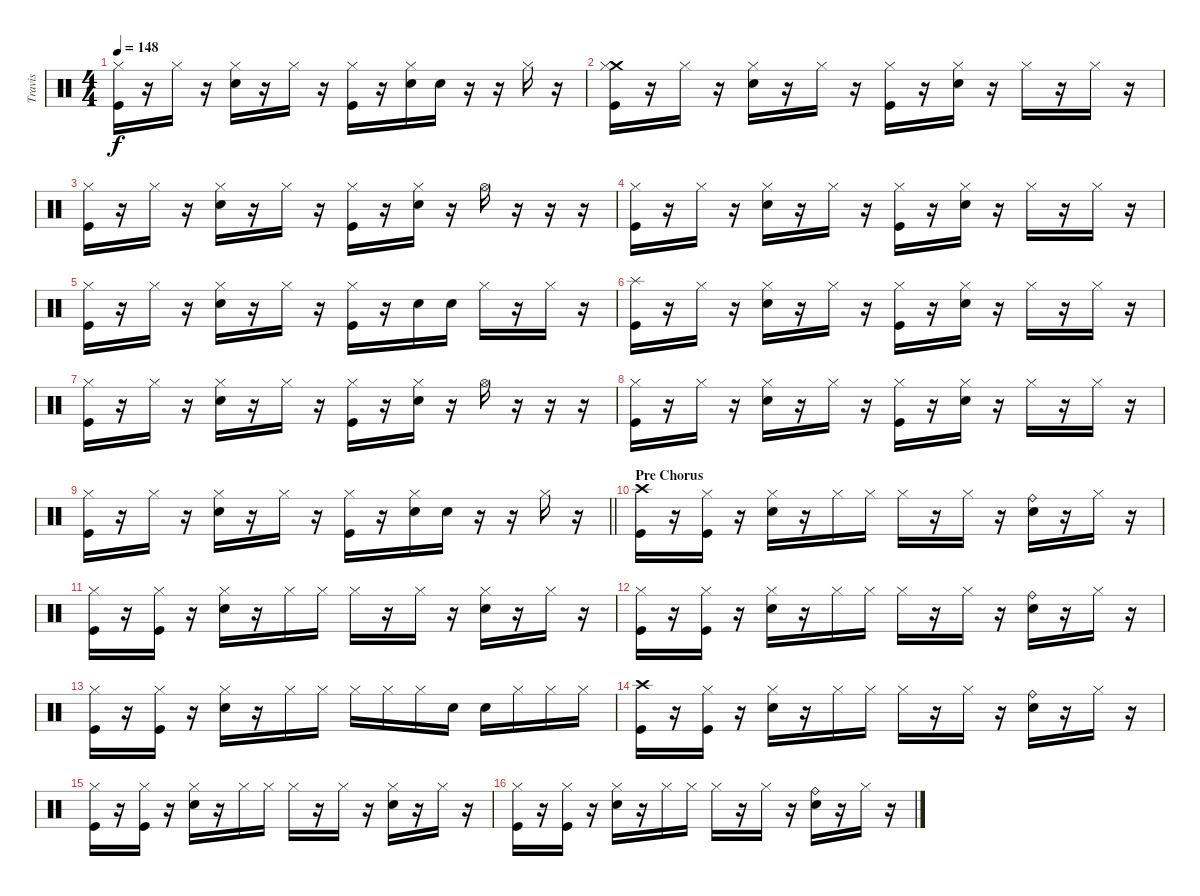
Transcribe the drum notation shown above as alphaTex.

\track ("Travis" "Travis") {instrument percussion}
\staff {score}
\articulation defaults
\ts (4 4)
\tempo 148
\clef neutral
\ks c
("Hi-Hat (closed)" "Kick (hit)").16{dy f} r.16 "Hi-Hat (closed)".16 r.16 ("Hi-Hat (closed)" "Snare (hit) 2").16 r.16 "Hi-Hat (closed)".16 r.16 ("Hi-Hat (closed)" "Kick (hit)").16 r.16 ("Hi-Hat (closed)" "Snare (hit) 2").16 "Snare (hit) 2".16 r.16 r.16 "Hi-Hat (closed)".16 r.16 |
("Crash medium (hit)" "Hi-Hat (closed)" "Kick (hit)").16 r.16 "Hi-Hat (closed)".16 r.16 ("Hi-Hat (closed)" "Snare (hit) 2").16 r.16 "Hi-Hat (closed)".16 r.16 ("Hi-Hat (closed)" "Kick (hit)").16 r.16 ("Hi-Hat (closed)" "Snare (hit) 2").16 r.16 "Hi-Hat (closed)".16 r.16 "Hi-Hat (closed)".16 r.16 |
("Hi-Hat (closed)" "Kick (hit)").16 r.16 "Hi-Hat (closed)".16 r.16 ("Hi-Hat (closed)" "Snare (hit) 2").16 r.16 "Hi-Hat (closed)".16 r.16 ("Hi-Hat (closed)" "Kick (hit)").16 r.16 ("Hi-Hat (closed)" "Snare (hit) 2").16 r.16 "Hi-Hat (open)".16 r.16 r.16 r.16 |
("Hi-Hat (closed)" "Kick (hit)").16 r.16 "Hi-Hat (closed)".16 r.16 ("Hi-Hat (closed)" "Snare (hit) 2").16 r.16 "Hi-Hat (closed)".16 r.16 ("Hi-Hat (closed)" "Kick (hit)").16 r.16 ("Hi-Hat (closed)" "Snare (hit) 2").16 r.16 "Hi-Hat (closed)".16 r.16 "Hi-Hat (closed)".16 r.16 |
("Hi-Hat (closed)" "Kick (hit)").16 r.16 "Hi-Hat (closed)".16 r.16 ("Hi-Hat (closed)" "Snare (hit) 2").16 r.16 "Hi-Hat (closed)".16 r.16 ("Hi-Hat (closed)" "Kick (hit)").16 r.16 "Snare (hit) 2".16 "Snare (hit) 2".16 "Hi-Hat (closed)".16 r.16 "Hi-Hat (closed)".16 r.16 |
("Splash (hit)" "Kick (hit)").16 r.16 "Hi-Hat (closed)".16 r.16 ("Hi-Hat (closed)" "Snare (hit) 2").16 r.16 "Hi-Hat (closed)".16 r.16 ("Hi-Hat (closed)" "Kick (hit)").16 r.16 ("Hi-Hat (closed)" "Snare (hit) 2").16 r.16 "Hi-Hat (closed)".16 r.16 "Hi-Hat (closed)".16 r.16 |
("Hi-Hat (closed)" "Kick (hit)").16 r.16 "Hi-Hat (closed)".16 r.16 ("Hi-Hat (closed)" "Snare (hit) 2").16 r.16 "Hi-Hat (closed)".16 r.16 ("Hi-Hat (closed)" "Kick (hit)").16 r.16 ("Hi-Hat (closed)" "Snare (hit) 2").16 r.16 "Hi-Hat (open)".16 r.16 r.16 r.16 |
("Hi-Hat (closed)" "Kick (hit)").16 r.16 "Hi-Hat (closed)".16 r.16 ("Hi-Hat (closed)" "Snare (hit) 2").16 r.16 "Hi-Hat (closed)".16 r.16 ("Hi-Hat (closed)" "Kick (hit)").16 r.16 ("Hi-Hat (closed)" "Snare (hit) 2").16 r.16 "Hi-Hat (closed)".16 r.16 "Hi-Hat (closed)".16 r.16 |
\barLineRight lightlight
("Hi-Hat (closed)" "Kick (hit)").16 r.16 "Hi-Hat (closed)".16 r.16 ("Hi-Hat (closed)" "Snare (hit) 2").16 r.16 "Hi-Hat (closed)".16 r.16 ("Hi-Hat (closed)" "Kick (hit)").16 r.16 ("Hi-Hat (closed)" "Snare (hit) 2").16 "Snare (hit) 2".16 r.16 r.16 "Hi-Hat (closed)".16 r.16 |
\section ("" "Pre Chorus")
("Crash high (hit)" "Kick (hit)").16 r.16 ("Hi-Hat (closed)" "Kick (hit)").16 r.16 ("Hi-Hat (closed)" "Snare (hit) 2").16 r.16 "Hi-Hat (closed)".16 "Hi-Hat (closed)".16 "Hi-Hat (closed)".16 r.16 "Hi-Hat (closed)".16 r.16 ("Ride (bell)" "Snare (hit) 2").16 r.16 "Hi-Hat (closed)".16 r.16 |
("Hi-Hat (closed)" "Kick (hit)").16 r.16 ("Hi-Hat (closed)" "Kick (hit)").16 r.16 ("Hi-Hat (closed)" "Snare (hit) 2").16 r.16 "Hi-Hat (closed)".16 "Hi-Hat (closed)".16 "Hi-Hat (closed)".16 r.16 "Hi-Hat (closed)".16 r.16 ("Hi-Hat (closed)" "Snare (hit) 2").16 r.16 "Hi-Hat (closed)".16 r.16 |
("Hi-Hat (closed)" "Kick (hit)").16 r.16 ("Hi-Hat (closed)" "Kick (hit)").16 r.16 ("Hi-Hat (closed)" "Snare (hit) 2").16 r.16 "Hi-Hat (closed)".16 "Hi-Hat (closed)".16 "Hi-Hat (closed)".16 r.16 "Hi-Hat (closed)".16 r.16 ("Ride (bell)" "Snare (hit) 2").16 r.16 "Hi-Hat (closed)".16 r.16 |
("Hi-Hat (closed)" "Kick (hit)").16 r.16 ("Hi-Hat (closed)" "Kick (hit)").16 r.16 ("Hi-Hat (closed)" "Snare (hit) 2").16 r.16 "Hi-Hat (closed)".16 "Hi-Hat (closed)".16 "Hi-Hat (closed)".16 "Hi-Hat (closed)".16 "Hi-Hat (closed)".16 "Snare (hit) 2".16 "Snare (hit) 2".16 "Hi-Hat (closed)".16 "Hi-Hat (closed)".16 "Hi-Hat (closed)".16 |
("Crash high (hit)" "Kick (hit)").16 r.16 ("Hi-Hat (closed)" "Kick (hit)").16 r.16 ("Hi-Hat (closed)" "Snare (hit) 2").16 r.16 "Hi-Hat (closed)".16 "Hi-Hat (closed)".16 "Hi-Hat (closed)".16 r.16 "Hi-Hat (closed)".16 r.16 ("Ride (bell)" "Snare (hit) 2").16 r.16 "Hi-Hat (closed)".16 r.16 |
("Hi-Hat (closed)" "Kick (hit)").16 r.16 ("Hi-Hat (closed)" "Kick (hit)").16 r.16 ("Hi-Hat (closed)" "Snare (hit) 2").16 r.16 "Hi-Hat (closed)".16 "Hi-Hat (closed)".16 "Hi-Hat (closed)".16 r.16 "Hi-Hat (closed)".16 r.16 ("Hi-Hat (closed)" "Snare (hit) 2").16 r.16 "Hi-Hat (closed)".16 r.16 |
("Hi-Hat (closed)" "Kick (hit)").16 r.16 ("Hi-Hat (closed)" "Kick (hit)").16 r.16 ("Hi-Hat (closed)" "Snare (hit) 2").16 r.16 "Hi-Hat (closed)".16 "Hi-Hat (closed)".16 "Hi-Hat (closed)".16 r.16 "Hi-Hat (closed)".16 r.16 ("Ride (bell)" "Snare (hit) 2").16 r.16 "Hi-Hat (closed)".16 r.16
